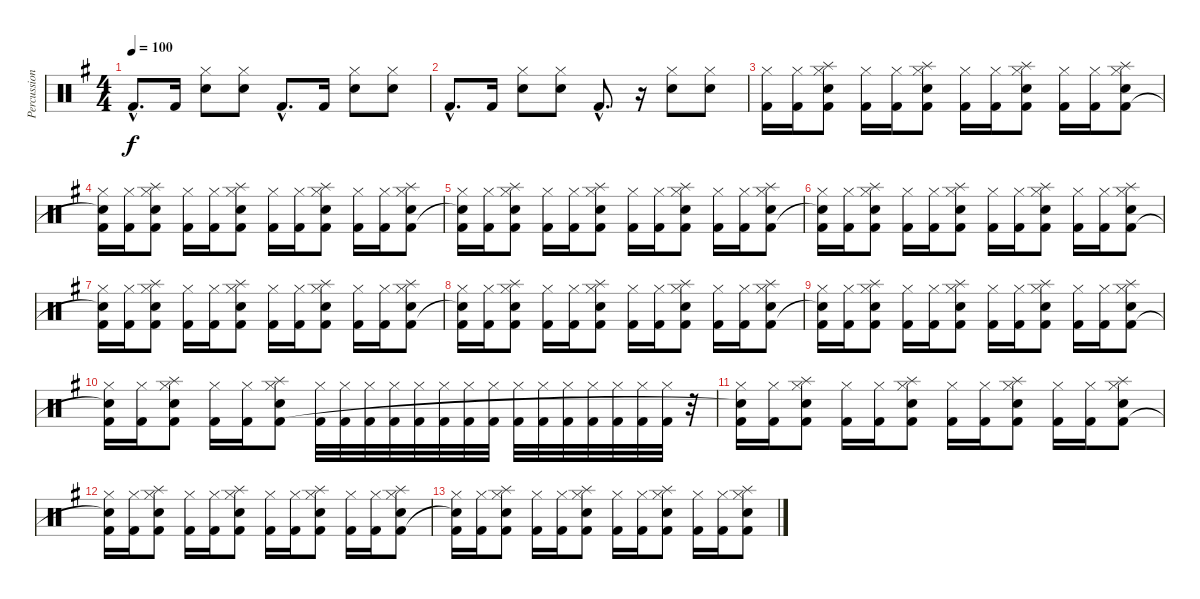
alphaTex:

\track ("Percussion" "Percussion") {instrument percussion}
\staff {score}
\articulation defaults
\ts (4 4)
\tempo 100
\clef neutral
\ks g "Kick (hit) 2"{hac}.8{d dy f} "Kick (hit) 2".16
("Hi-Hat (closed)" "Snare (hit) 2").8 ("Hi-Hat (closed)" "Snare (hit) 2").8 "Kick (hit) 2"{hac}.8{d} "Kick (hit) 2".16 ("Hi-Hat (closed)" "Snare (hit) 2").8 ("Hi-Hat (closed)" "Snare (hit) 2").8 |
"Kick (hit) 2"{hac}.8{d} "Kick (hit) 2".16 ("Hi-Hat (closed)" "Snare (hit) 2").8 ("Hi-Hat (closed)" "Snare (hit) 2").8 "Kick (hit) 2"{hac}.8{d} r.16 ("Hi-Hat (closed)" "Snare (hit) 2").8 ("Hi-Hat (closed)" "Snare (hit) 2").8 |
("Hi-Hat (closed)" "Kick (hit) 2").16 ("Hi-Hat (closed)" "Kick (hit) 2").16 ("Hi-Hat (closed)" "Snare (hit) 2" "Kick (hit) 2" "Splash (hit)").8 ("Hi-Hat (closed)" "Kick (hit) 2").16 ("Hi-Hat (closed)" "Kick (hit) 2").16 ("Hi-Hat (closed)" "Snare (hit) 2" "Kick (hit) 2" "Splash (hit)").8 ("Hi-Hat (closed)" "Kick (hit) 2").16 ("Hi-Hat (closed)" "Kick (hit) 2").16 ("Hi-Hat (closed)" "Snare (hit) 2" "Kick (hit) 2" "Splash (hit)").8 ("Hi-Hat (closed)" "Kick (hit) 2").16 ("Hi-Hat (closed)" "Kick (hit) 2").16 ("Hi-Hat (closed)" "Snare (hit) 2" "Kick (hit) 2" "Splash (hit)").8 |
("Hi-Hat (closed)" "Kick (hit) 2" "Snare (hit)"{t}).16 ("Hi-Hat (closed)" "Kick (hit) 2").16 ("Hi-Hat (closed)" "Snare (hit) 2" "Kick (hit) 2" "Splash (hit)").8 ("Hi-Hat (closed)" "Kick (hit) 2").16 ("Hi-Hat (closed)" "Kick (hit) 2").16 ("Hi-Hat (closed)" "Snare (hit) 2" "Kick (hit) 2" "Splash (hit)").8 ("Hi-Hat (closed)" "Kick (hit) 2").16 ("Hi-Hat (closed)" "Kick (hit) 2").16 ("Hi-Hat (closed)" "Snare (hit) 2" "Kick (hit) 2" "Splash (hit)").8 ("Hi-Hat (closed)" "Kick (hit) 2").16 ("Hi-Hat (closed)" "Kick (hit) 2").16 ("Hi-Hat (closed)" "Snare (hit) 2" "Kick (hit) 2" "Splash (hit)").8 |
("Hi-Hat (closed)" "Kick (hit) 2" "Snare (hit)"{t}).16 ("Hi-Hat (closed)" "Kick (hit) 2").16 ("Hi-Hat (closed)" "Snare (hit) 2" "Kick (hit) 2" "Splash (hit)").8 ("Hi-Hat (closed)" "Kick (hit) 2").16 ("Hi-Hat (closed)" "Kick (hit) 2").16 ("Hi-Hat (closed)" "Snare (hit) 2" "Kick (hit) 2" "Splash (hit)").8 ("Hi-Hat (closed)" "Kick (hit) 2").16 ("Hi-Hat (closed)" "Kick (hit) 2").16 ("Hi-Hat (closed)" "Snare (hit) 2" "Kick (hit) 2" "Splash (hit)").8 ("Hi-Hat (closed)" "Kick (hit) 2").16 ("Hi-Hat (closed)" "Kick (hit) 2").16 ("Hi-Hat (closed)" "Snare (hit) 2" "Kick (hit) 2" "Splash (hit)").8 |
("Hi-Hat (closed)" "Kick (hit) 2" "Snare (hit)"{t}).16 ("Hi-Hat (closed)" "Kick (hit) 2").16 ("Hi-Hat (closed)" "Snare (hit) 2" "Kick (hit) 2" "Splash (hit)").8 ("Hi-Hat (closed)" "Kick (hit) 2").16 ("Hi-Hat (closed)" "Kick (hit) 2").16 ("Hi-Hat (closed)" "Snare (hit) 2" "Kick (hit) 2" "Splash (hit)").8 ("Hi-Hat (closed)" "Kick (hit) 2").16 ("Hi-Hat (closed)" "Kick (hit) 2").16 ("Hi-Hat (closed)" "Snare (hit) 2" "Kick (hit) 2" "Splash (hit)").8 ("Hi-Hat (closed)" "Kick (hit) 2").16 ("Hi-Hat (closed)" "Kick (hit) 2").16 ("Hi-Hat (closed)" "Snare (hit) 2" "Kick (hit) 2" "Splash (hit)").8 |
("Hi-Hat (closed)" "Kick (hit) 2" "Snare (hit)"{t}).16 ("Hi-Hat (closed)" "Kick (hit) 2").16 ("Hi-Hat (closed)" "Snare (hit) 2" "Kick (hit) 2" "Splash (hit)").8 ("Hi-Hat (closed)" "Kick (hit) 2").16 ("Hi-Hat (closed)" "Kick (hit) 2").16 ("Hi-Hat (closed)" "Snare (hit) 2" "Kick (hit) 2" "Splash (hit)").8 ("Hi-Hat (closed)" "Kick (hit) 2").16 ("Hi-Hat (closed)" "Kick (hit) 2").16 ("Hi-Hat (closed)" "Snare (hit) 2" "Kick (hit) 2" "Splash (hit)").8 ("Hi-Hat (closed)" "Kick (hit) 2").16 ("Hi-Hat (closed)" "Kick (hit) 2").16 ("Hi-Hat (closed)" "Snare (hit) 2" "Kick (hit) 2" "Splash (hit)").8 |
("Hi-Hat (closed)" "Kick (hit) 2" "Snare (hit)"{t}).16 ("Hi-Hat (closed)" "Kick (hit) 2").16 ("Hi-Hat (closed)" "Snare (hit) 2" "Kick (hit) 2" "Splash (hit)").8 ("Hi-Hat (closed)" "Kick (hit) 2").16 ("Hi-Hat (closed)" "Kick (hit) 2").16 ("Hi-Hat (closed)" "Snare (hit) 2" "Kick (hit) 2" "Splash (hit)").8 ("Hi-Hat (closed)" "Kick (hit) 2").16 ("Hi-Hat (closed)" "Kick (hit) 2").16 ("Hi-Hat (closed)" "Snare (hit) 2" "Kick (hit) 2" "Splash (hit)").8 ("Hi-Hat (closed)" "Kick (hit) 2").16 ("Hi-Hat (closed)" "Kick (hit) 2").16 ("Hi-Hat (closed)" "Snare (hit) 2" "Kick (hit) 2" "Splash (hit)").8 |
("Hi-Hat (closed)" "Kick (hit) 2" "Snare (hit)"{t}).16 ("Hi-Hat (closed)" "Kick (hit) 2").16 ("Hi-Hat (closed)" "Snare (hit) 2" "Kick (hit) 2" "Splash (hit)").8 ("Hi-Hat (closed)" "Kick (hit) 2").16 ("Hi-Hat (closed)" "Kick (hit) 2").16 ("Hi-Hat (closed)" "Snare (hit) 2" "Kick (hit) 2" "Splash (hit)").8 ("Hi-Hat (closed)" "Kick (hit) 2").16 ("Hi-Hat (closed)" "Kick (hit) 2").16 ("Hi-Hat (closed)" "Snare (hit) 2" "Kick (hit) 2" "Splash (hit)").8 ("Hi-Hat (closed)" "Kick (hit) 2").16 ("Hi-Hat (closed)" "Kick (hit) 2").16 ("Hi-Hat (closed)" "Snare (hit) 2" "Kick (hit) 2" "Splash (hit)").8 |
("Hi-Hat (closed)" "Kick (hit) 2" "Snare (hit)"{t}).16 ("Hi-Hat (closed)" "Kick (hit) 2").16 ("Hi-Hat (closed)" "Snare (hit) 2" "Kick (hit) 2" "Splash (hit)").8 ("Hi-Hat (closed)" "Kick (hit) 2").16 ("Hi-Hat (closed)" "Kick (hit) 2").16 ("Hi-Hat (closed)" "Snare (hit) 2" "Kick (hit) 2" "Splash (hit)").8 ("Hi-Hat (closed)" "Kick (hit) 2").32 ("Hi-Hat (closed)" "Kick (hit) 2").32 ("Hi-Hat (closed)" "Kick (hit) 2").32 ("Hi-Hat (closed)" "Kick (hit) 2").32 ("Hi-Hat (closed)" "Kick (hit) 2").32 ("Hi-Hat (closed)" "Kick (hit) 2").32 ("Hi-Hat (closed)" "Kick (hit) 2").32 ("Hi-Hat (closed)" "Kick (hit) 2").32 ("Hi-Hat (closed)" "Kick (hit) 2").32 ("Hi-Hat (closed)" "Kick (hit) 2").32 ("Hi-Hat (closed)" "Kick (hit) 2").32 ("Hi-Hat (closed)" "Kick (hit) 2").32 ("Hi-Hat (closed)" "Kick (hit) 2").32 ("Hi-Hat (closed)" "Kick (hit) 2").32 ("Hi-Hat (closed)" "Kick (hit) 2").32 r.32 |
("Hi-Hat (closed)" "Kick (hit) 2" "Snare (hit)"{t}).16 ("Hi-Hat (closed)" "Kick (hit) 2").16 ("Hi-Hat (closed)" "Snare (hit) 2" "Kick (hit) 2" "Splash (hit)").8 ("Hi-Hat (closed)" "Kick (hit) 2").16 ("Hi-Hat (closed)" "Kick (hit) 2").16 ("Hi-Hat (closed)" "Snare (hit) 2" "Kick (hit) 2" "Splash (hit)").8 ("Hi-Hat (closed)" "Kick (hit) 2").16 ("Hi-Hat (closed)" "Kick (hit) 2").16 ("Hi-Hat (closed)" "Snare (hit) 2" "Kick (hit) 2" "Splash (hit)").8 ("Hi-Hat (closed)" "Kick (hit) 2").16 ("Hi-Hat (closed)" "Kick (hit) 2").16 ("Hi-Hat (closed)" "Snare (hit) 2" "Kick (hit) 2" "Splash (hit)").8 |
("Hi-Hat (closed)" "Kick (hit) 2" "Snare (hit)"{t}).16 ("Hi-Hat (closed)" "Kick (hit) 2").16 ("Hi-Hat (closed)" "Snare (hit) 2" "Kick (hit) 2" "Splash (hit)").8 ("Hi-Hat (closed)" "Kick (hit) 2").16 ("Hi-Hat (closed)" "Kick (hit) 2").16 ("Hi-Hat (closed)" "Snare (hit) 2" "Kick (hit) 2" "Splash (hit)").8 ("Hi-Hat (closed)" "Kick (hit) 2").16 ("Hi-Hat (closed)" "Kick (hit) 2").16 ("Hi-Hat (closed)" "Snare (hit) 2" "Kick (hit) 2" "Splash (hit)").8 ("Hi-Hat (closed)" "Kick (hit) 2").16 ("Hi-Hat (closed)" "Kick (hit) 2").16 ("Hi-Hat (closed)" "Snare (hit) 2" "Kick (hit) 2" "Splash (hit)").8 |
("Hi-Hat (closed)" "Kick (hit) 2" "Snare (hit)"{t}).16 ("Hi-Hat (closed)" "Kick (hit) 2").16 ("Hi-Hat (closed)" "Snare (hit) 2" "Kick (hit) 2" "Splash (hit)").8 ("Hi-Hat (closed)" "Kick (hit) 2").16 ("Hi-Hat (closed)" "Kick (hit) 2").16 ("Hi-Hat (closed)" "Snare (hit) 2" "Kick (hit) 2" "Splash (hit)").8 ("Hi-Hat (closed)" "Kick (hit) 2").16 ("Hi-Hat (closed)" "Kick (hit) 2").16 ("Hi-Hat (closed)" "Snare (hit) 2" "Kick (hit) 2" "Splash (hit)").8 ("Hi-Hat (closed)" "Kick (hit) 2").16 ("Hi-Hat (closed)" "Kick (hit) 2").16 ("Hi-Hat (closed)" "Snare (hit) 2" "Kick (hit) 2" "Splash (hit)").8
